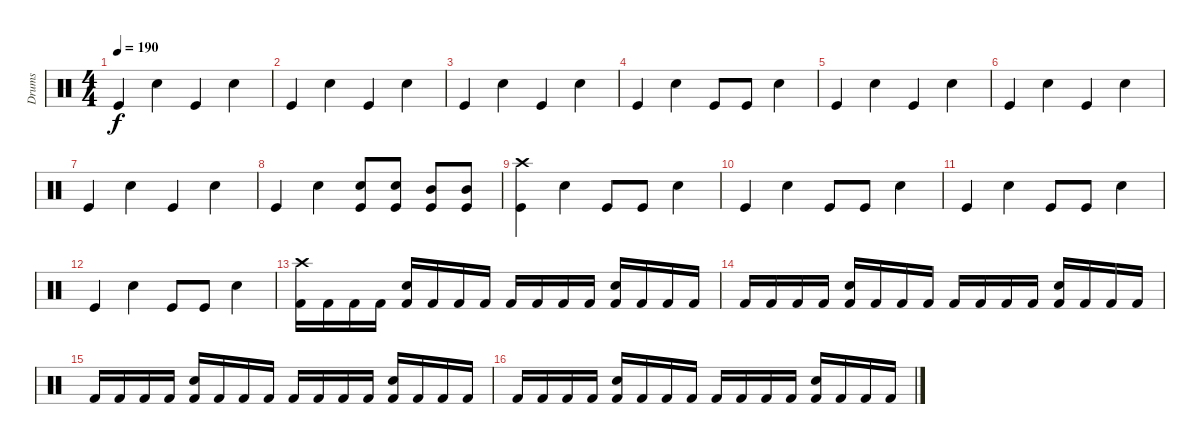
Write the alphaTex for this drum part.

\track ("Drums" "Drums") {instrument percussion}
\staff {score}
\articulation defaults
\ts (4 4)
\tempo 190
\clef neutral
\ks c "Kick (hit)".4{dy f} "Snare (hit) 2".4 "Kick (hit)".4 "Snare (hit) 2".4
|
"Kick (hit)".4 "Snare (hit) 2".4 "Kick (hit)".4 "Snare (hit) 2".4 |
"Kick (hit)".4 "Snare (hit) 2".4 "Kick (hit)".4 "Snare (hit) 2".4 |
"Kick (hit)".4 "Snare (hit) 2".4 "Kick (hit)".8 "Kick (hit)".8 "Snare (hit) 2".4 |
"Kick (hit)".4 "Snare (hit) 2".4 "Kick (hit)".4 "Snare (hit) 2".4 |
"Kick (hit)".4 "Snare (hit) 2".4 "Kick (hit)".4 "Snare (hit) 2".4 |
"Kick (hit)".4 "Snare (hit) 2".4 "Kick (hit)".4 "Snare (hit) 2".4 |
"Kick (hit)".4 "Snare (hit) 2".4 ("Snare (hit) 2" "Kick (hit)").8 ("Snare (hit) 2" "Kick (hit)").8 ("Mid Tom (hit)" "Kick (hit)").8 ("Mid Tom (hit)" "Kick (hit)").8 |
("Crash high (hit)" "Kick (hit)").4 "Snare (hit) 2".4 "Kick (hit)".8 "Kick (hit)".8 "Snare (hit) 2".4 |
"Kick (hit)".4 "Snare (hit) 2".4 "Kick (hit)".8 "Kick (hit)".8 "Snare (hit) 2".4 |
"Kick (hit)".4 "Snare (hit) 2".4 "Kick (hit)".8 "Kick (hit)".8 "Snare (hit) 2".4 |
"Kick (hit)".4 "Snare (hit) 2".4 "Kick (hit)".8 "Kick (hit)".8 "Snare (hit) 2".4 |
("Crash high (hit)" "Kick (hit) 2").16 "Kick (hit) 2".16 "Kick (hit) 2".16 "Kick (hit) 2".16 ("Snare (hit) 2" "Kick (hit) 2").16 "Kick (hit) 2".16 "Kick (hit) 2".16 "Kick (hit) 2".16 "Kick (hit) 2".16 "Kick (hit) 2".16 "Kick (hit) 2".16 "Kick (hit) 2".16 ("Snare (hit) 2" "Kick (hit) 2").16 "Kick (hit) 2".16 "Kick (hit) 2".16 "Kick (hit) 2".16 |
"Kick (hit) 2".16 "Kick (hit) 2".16 "Kick (hit) 2".16 "Kick (hit) 2".16 ("Snare (hit) 2" "Kick (hit) 2").16 "Kick (hit) 2".16 "Kick (hit) 2".16 "Kick (hit) 2".16 "Kick (hit) 2".16 "Kick (hit) 2".16 "Kick (hit) 2".16 "Kick (hit) 2".16 ("Snare (hit) 2" "Kick (hit) 2").16 "Kick (hit) 2".16 "Kick (hit) 2".16 "Kick (hit) 2".16 |
"Kick (hit) 2".16 "Kick (hit) 2".16 "Kick (hit) 2".16 "Kick (hit) 2".16 ("Snare (hit) 2" "Kick (hit) 2").16 "Kick (hit) 2".16 "Kick (hit) 2".16 "Kick (hit) 2".16 "Kick (hit) 2".16 "Kick (hit) 2".16 "Kick (hit) 2".16 "Kick (hit) 2".16 ("Snare (hit) 2" "Kick (hit) 2").16 "Kick (hit) 2".16 "Kick (hit) 2".16 "Kick (hit) 2".16 |
"Kick (hit) 2".16 "Kick (hit) 2".16 "Kick (hit) 2".16 "Kick (hit) 2".16 ("Snare (hit) 2" "Kick (hit) 2").16 "Kick (hit) 2".16 "Kick (hit) 2".16 "Kick (hit) 2".16 "Kick (hit) 2".16 "Kick (hit) 2".16 "Kick (hit) 2".16 "Kick (hit) 2".16 ("Snare (hit) 2" "Kick (hit) 2").16 "Kick (hit) 2".16 "Kick (hit) 2".16 "Kick (hit) 2".16
